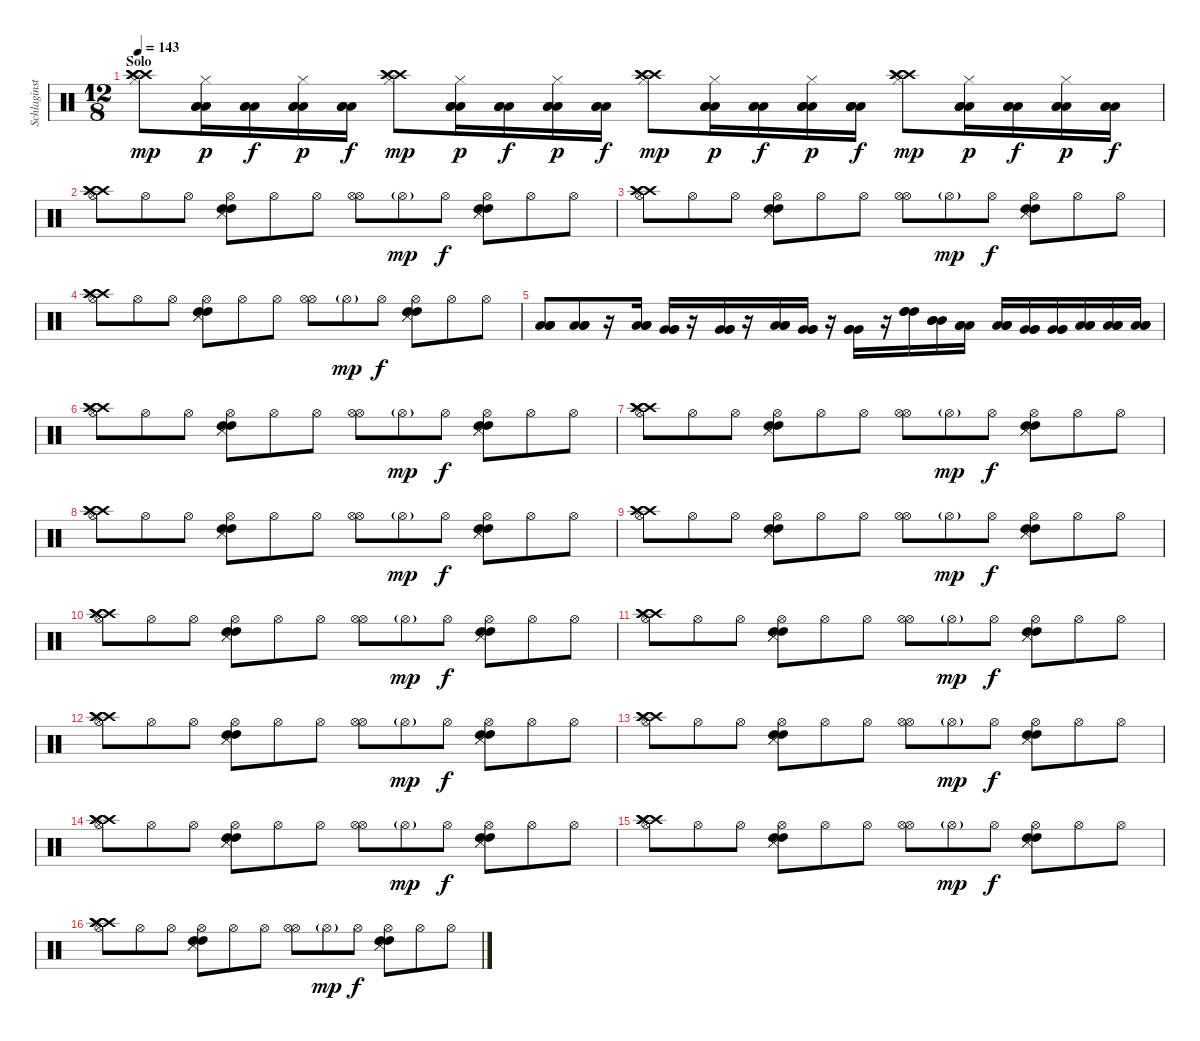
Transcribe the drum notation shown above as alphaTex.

\track ("Schlaginstrumente - Auswahl" "Schlaginst") {instrument percussion}
\staff {score}
\articulation defaults
\ts (12 8)
\section ("" "Solo")
\tempo 143
\clef neutral
\ks c
("Hi-Hat (closed)" "Crash high (hit)" "Crash high (hit)" "Crash high (hit)").8{dy mp} ("Hi-Hat (closed)" "Low Tom (hit)" "Low Tom (hit)" "Low Tom (hit)").16{dy p} ("Low Tom (hit)" "Low Tom (hit)" "Low Tom (hit)").16{dy f} ("Hi-Hat (closed)" "Low Tom (hit)" "Low Tom (hit)" "Low Tom (hit)").16{dy p} ("Low Tom (hit)" "Low Tom (hit)" "Low Tom (hit)").16{dy f} ("Hi-Hat (closed)" "Crash high (hit)" "Crash high (hit)" "Crash high (hit)").8{dy mp} ("Hi-Hat (closed)" "Low Tom (hit)" "Low Tom (hit)" "Low Tom (hit)").16{dy p} ("Low Tom (hit)" "Low Tom (hit)" "Low Tom (hit)").16{dy f} ("Hi-Hat (closed)" "Low Tom (hit)" "Low Tom (hit)" "Low Tom (hit)").16{dy p} ("Low Tom (hit)" "Low Tom (hit)" "Low Tom (hit)").16{dy f} ("Hi-Hat (closed)" "Crash high (hit)" "Crash high (hit)" "Crash high (hit)").8{dy mp} ("Hi-Hat (closed)" "Low Tom (hit)" "Low Tom (hit)" "Low Tom (hit)").16{dy p} ("Low Tom (hit)" "Low Tom (hit)" "Low Tom (hit)").16{dy f} ("Hi-Hat (closed)" "Low Tom (hit)" "Low Tom (hit)" "Low Tom (hit)").16{dy p} ("Low Tom (hit)" "Low Tom (hit)" "Low Tom (hit)").16{dy f} ("Hi-Hat (closed)" "Crash high (hit)" "Crash high (hit)" "Crash high (hit)").8{dy mp} ("Hi-Hat (closed)" "Low Tom (hit)" "Low Tom (hit)" "Low Tom (hit)").16{dy p} ("Low Tom (hit)" "Low Tom (hit)" "Low Tom (hit)").16{dy f} ("Hi-Hat (closed)" "Low Tom (hit)" "Low Tom (hit)" "Low Tom (hit)").16{dy p} ("Low Tom (hit)" "Low Tom (hit)" "Low Tom (hit)").16{dy f} |
("Hi-Hat (open)" "Crash high (hit)" "Crash high (hit)" "Crash high (hit)").8 "Hi-Hat (open)".8 "Hi-Hat (open)".8 ("Hi-Hat (open)" "Snare (side stick) 3" "Snare (side stick) 3" "High Tom (hit)" "High Tom (hit)").8 "Hi-Hat (open)".8 "Hi-Hat (open)".8 ("Hi-Hat (open)" "Hi-Hat (open)").8 "Hi-Hat (open)"{g}.8{dy mp} "Hi-Hat (open)".8{dy f} ("Hi-Hat (open)" "Snare (side stick) 3" "Snare (side stick) 3" "High Tom (hit)" "High Tom (hit)").8 "Hi-Hat (open)".8 "Hi-Hat (open)".8 |
("Hi-Hat (open)" "Crash high (hit)" "Crash high (hit)" "Crash high (hit)").8 "Hi-Hat (open)".8 "Hi-Hat (open)".8 ("Hi-Hat (open)" "Snare (side stick) 3" "Snare (side stick) 3" "High Tom (hit)" "High Tom (hit)").8 "Hi-Hat (open)".8 "Hi-Hat (open)".8 ("Hi-Hat (open)" "Hi-Hat (open)").8 "Hi-Hat (open)"{g}.8{dy mp} "Hi-Hat (open)".8{dy f} ("Hi-Hat (open)" "Snare (side stick) 3" "Snare (side stick) 3" "High Tom (hit)" "High Tom (hit)").8 "Hi-Hat (open)".8 "Hi-Hat (open)".8 |
("Hi-Hat (open)" "Crash high (hit)" "Crash high (hit)" "Crash high (hit)").8 "Hi-Hat (open)".8 "Hi-Hat (open)".8 ("Hi-Hat (open)" "Snare (side stick) 3" "Snare (side stick) 3" "High Tom (hit)" "High Tom (hit)").8 "Hi-Hat (open)".8 "Hi-Hat (open)".8 ("Hi-Hat (open)" "Hi-Hat (open)").8 "Hi-Hat (open)"{g}.8{dy mp} "Hi-Hat (open)".8{dy f} ("Hi-Hat (open)" "Snare (side stick) 3" "Snare (side stick) 3" "High Tom (hit)" "High Tom (hit)").8 "Hi-Hat (open)".8 "Hi-Hat (open)".8 |
("Low Tom (hit)" "Low Tom (hit)" "Low Tom (hit)").8 ("Low Tom (hit)" "Low Tom (hit)" "Low Tom (hit)").8 r.16 ("Low Tom (hit)" "Low Tom (hit)" "Low Tom (hit)").16 ("Very Low Tom (hit)" "Very Low Tom (hit)" "Very Low Tom (hit)").16 r.16 ("Very Low Tom (hit)" "Very Low Tom (hit)" "Very Low Tom (hit)").16 r.16 ("Low Tom (hit)" "Low Tom (hit)" "Low Tom (hit)").16 ("Very Low Tom (hit)" "Very Low Tom (hit)" "Very Low Tom (hit)").16 r.16 ("Very Low Tom (hit)" "Very Low Tom (hit)" "Very Low Tom (hit)").16 r.16 ("High Tom (hit)" "High Tom (hit)" "High Tom (hit)").16 ("Mid Tom (hit)" "Mid Tom (hit)" "Mid Tom (hit)").16 ("Low Tom (hit)" "Low Tom (hit)" "Low Tom (hit)").16 ("Low Tom (hit)" "Low Tom (hit)" "Low Tom (hit)").16 ("Very Low Tom (hit)" "Very Low Tom (hit)" "Very Low Tom (hit)").16 ("Very Low Tom (hit)" "Very Low Tom (hit)" "Very Low Tom (hit)").16 ("Low Floor Tom (hit)" "Low Floor Tom (hit)" "Low Floor Tom (hit)").16 ("Low Floor Tom (hit)" "Low Floor Tom (hit)" "Low Floor Tom (hit)").16 ("Low Floor Tom (hit)" "Low Floor Tom (hit)" "Low Floor Tom (hit)").16 |
("Hi-Hat (open)" "Crash high (hit)" "Crash high (hit)" "Crash high (hit)").8 "Hi-Hat (open)".8 "Hi-Hat (open)".8 ("Hi-Hat (open)" "Snare (side stick) 3" "Snare (side stick) 3" "High Tom (hit)" "High Tom (hit)").8 "Hi-Hat (open)".8 "Hi-Hat (open)".8 ("Hi-Hat (open)" "Hi-Hat (open)").8 "Hi-Hat (open)"{g}.8{dy mp} "Hi-Hat (open)".8{dy f} ("Hi-Hat (open)" "Snare (side stick) 3" "Snare (side stick) 3" "High Tom (hit)" "High Tom (hit)").8 "Hi-Hat (open)".8 "Hi-Hat (open)".8 |
("Hi-Hat (open)" "Crash high (hit)" "Crash high (hit)" "Crash high (hit)").8 "Hi-Hat (open)".8 "Hi-Hat (open)".8 ("Hi-Hat (open)" "Snare (side stick) 3" "Snare (side stick) 3" "High Tom (hit)" "High Tom (hit)").8 "Hi-Hat (open)".8 "Hi-Hat (open)".8 ("Hi-Hat (open)" "Hi-Hat (open)").8 "Hi-Hat (open)"{g}.8{dy mp} "Hi-Hat (open)".8{dy f} ("Hi-Hat (open)" "Snare (side stick) 3" "Snare (side stick) 3" "High Tom (hit)" "High Tom (hit)").8 "Hi-Hat (open)".8 "Hi-Hat (open)".8 |
("Hi-Hat (open)" "Crash high (hit)" "Crash high (hit)" "Crash high (hit)").8 "Hi-Hat (open)".8 "Hi-Hat (open)".8 ("Hi-Hat (open)" "Snare (side stick) 3" "Snare (side stick) 3" "High Tom (hit)" "High Tom (hit)").8 "Hi-Hat (open)".8 "Hi-Hat (open)".8 ("Hi-Hat (open)" "Hi-Hat (open)").8 "Hi-Hat (open)"{g}.8{dy mp} "Hi-Hat (open)".8{dy f} ("Hi-Hat (open)" "Snare (side stick) 3" "Snare (side stick) 3" "High Tom (hit)" "High Tom (hit)").8 "Hi-Hat (open)".8 "Hi-Hat (open)".8 |
("Hi-Hat (open)" "Crash high (hit)" "Crash high (hit)" "Crash high (hit)").8 "Hi-Hat (open)".8 "Hi-Hat (open)".8 ("Hi-Hat (open)" "Snare (side stick) 3" "Snare (side stick) 3" "High Tom (hit)" "High Tom (hit)").8 "Hi-Hat (open)".8 "Hi-Hat (open)".8 ("Hi-Hat (open)" "Hi-Hat (open)").8 "Hi-Hat (open)"{g}.8{dy mp} "Hi-Hat (open)".8{dy f} ("Hi-Hat (open)" "Snare (side stick) 3" "Snare (side stick) 3" "High Tom (hit)" "High Tom (hit)").8 "Hi-Hat (open)".8 "Hi-Hat (open)".8 |
("Hi-Hat (open)" "Crash high (hit)" "Crash high (hit)" "Crash high (hit)").8 "Hi-Hat (open)".8 "Hi-Hat (open)".8 ("Hi-Hat (open)" "Snare (side stick) 3" "Snare (side stick) 3" "High Tom (hit)" "High Tom (hit)").8 "Hi-Hat (open)".8 "Hi-Hat (open)".8 ("Hi-Hat (open)" "Hi-Hat (open)").8 "Hi-Hat (open)"{g}.8{dy mp} "Hi-Hat (open)".8{dy f} ("Hi-Hat (open)" "Snare (side stick) 3" "Snare (side stick) 3" "High Tom (hit)" "High Tom (hit)").8 "Hi-Hat (open)".8 "Hi-Hat (open)".8 |
("Hi-Hat (open)" "Crash high (hit)" "Crash high (hit)" "Crash high (hit)").8 "Hi-Hat (open)".8 "Hi-Hat (open)".8 ("Hi-Hat (open)" "Snare (side stick) 3" "Snare (side stick) 3" "High Tom (hit)" "High Tom (hit)").8 "Hi-Hat (open)".8 "Hi-Hat (open)".8 ("Hi-Hat (open)" "Hi-Hat (open)").8 "Hi-Hat (open)"{g}.8{dy mp} "Hi-Hat (open)".8{dy f} ("Hi-Hat (open)" "Snare (side stick) 3" "Snare (side stick) 3" "High Tom (hit)" "High Tom (hit)").8 "Hi-Hat (open)".8 "Hi-Hat (open)".8 |
("Hi-Hat (open)" "Crash high (hit)" "Crash high (hit)" "Crash high (hit)").8 "Hi-Hat (open)".8 "Hi-Hat (open)".8 ("Hi-Hat (open)" "Snare (side stick) 3" "Snare (side stick) 3" "High Tom (hit)" "High Tom (hit)").8 "Hi-Hat (open)".8 "Hi-Hat (open)".8 ("Hi-Hat (open)" "Hi-Hat (open)").8 "Hi-Hat (open)"{g}.8{dy mp} "Hi-Hat (open)".8{dy f} ("Hi-Hat (open)" "Snare (side stick) 3" "Snare (side stick) 3" "High Tom (hit)" "High Tom (hit)").8 "Hi-Hat (open)".8 "Hi-Hat (open)".8 |
("Hi-Hat (open)" "Crash high (hit)" "Crash high (hit)" "Crash high (hit)").8 "Hi-Hat (open)".8 "Hi-Hat (open)".8 ("Hi-Hat (open)" "Snare (side stick) 3" "Snare (side stick) 3" "High Tom (hit)" "High Tom (hit)").8 "Hi-Hat (open)".8 "Hi-Hat (open)".8 ("Hi-Hat (open)" "Hi-Hat (open)").8 "Hi-Hat (open)"{g}.8{dy mp} "Hi-Hat (open)".8{dy f} ("Hi-Hat (open)" "Snare (side stick) 3" "Snare (side stick) 3" "High Tom (hit)" "High Tom (hit)").8 "Hi-Hat (open)".8 "Hi-Hat (open)".8 |
("Hi-Hat (open)" "Crash high (hit)" "Crash high (hit)" "Crash high (hit)").8 "Hi-Hat (open)".8 "Hi-Hat (open)".8 ("Hi-Hat (open)" "Snare (side stick) 3" "Snare (side stick) 3" "High Tom (hit)" "High Tom (hit)").8 "Hi-Hat (open)".8 "Hi-Hat (open)".8 ("Hi-Hat (open)" "Hi-Hat (open)").8 "Hi-Hat (open)"{g}.8{dy mp} "Hi-Hat (open)".8{dy f} ("Hi-Hat (open)" "Snare (side stick) 3" "Snare (side stick) 3" "High Tom (hit)" "High Tom (hit)").8 "Hi-Hat (open)".8 "Hi-Hat (open)".8 |
("Hi-Hat (open)" "Crash high (hit)" "Crash high (hit)" "Crash high (hit)").8 "Hi-Hat (open)".8 "Hi-Hat (open)".8 ("Hi-Hat (open)" "Snare (side stick) 3" "Snare (side stick) 3" "High Tom (hit)" "High Tom (hit)").8 "Hi-Hat (open)".8 "Hi-Hat (open)".8 ("Hi-Hat (open)" "Hi-Hat (open)").8 "Hi-Hat (open)"{g}.8{dy mp} "Hi-Hat (open)".8{dy f} ("Hi-Hat (open)" "Snare (side stick) 3" "Snare (side stick) 3" "High Tom (hit)" "High Tom (hit)").8 "Hi-Hat (open)".8 "Hi-Hat (open)".8 |
("Hi-Hat (open)" "Crash high (hit)" "Crash high (hit)" "Crash high (hit)").8 "Hi-Hat (open)".8 "Hi-Hat (open)".8 ("Hi-Hat (open)" "Snare (side stick) 3" "Snare (side stick) 3" "High Tom (hit)" "High Tom (hit)").8 "Hi-Hat (open)".8 "Hi-Hat (open)".8 ("Hi-Hat (open)" "Hi-Hat (open)").8 "Hi-Hat (open)"{g}.8{dy mp} "Hi-Hat (open)".8{dy f} ("Hi-Hat (open)" "Snare (side stick) 3" "Snare (side stick) 3" "High Tom (hit)" "High Tom (hit)").8 "Hi-Hat (open)".8 "Hi-Hat (open)".8
